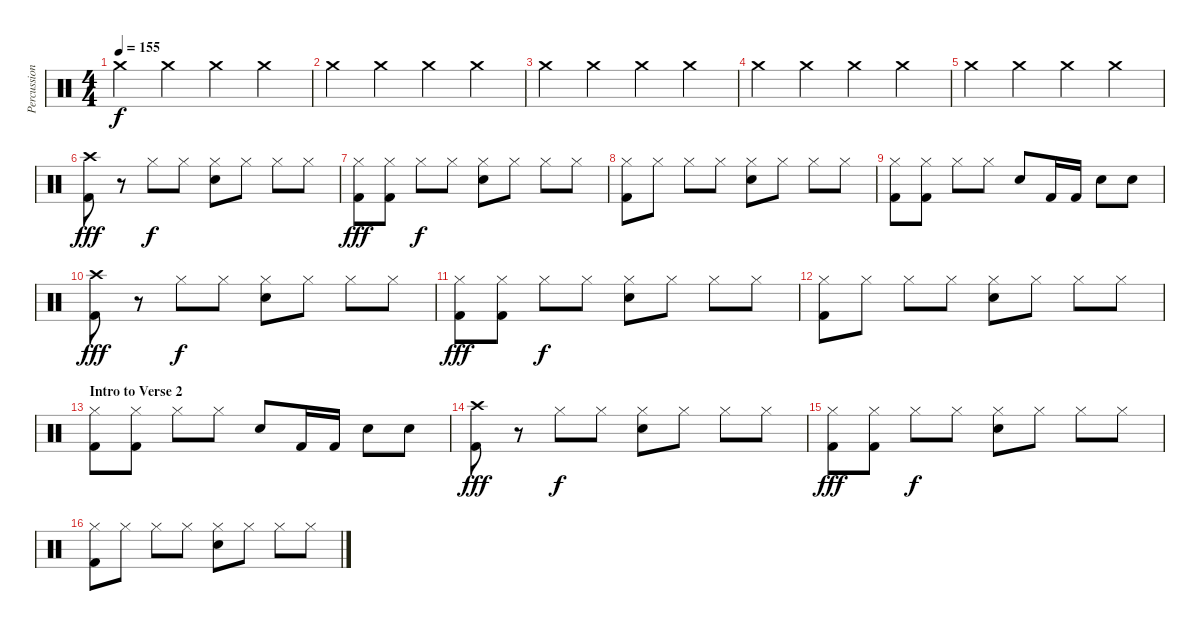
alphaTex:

\track ("Percussion" "Percussion") {instrument percussion}
\staff {score}
\articulation defaults
\ts (4 4)
\tempo 155
\clef neutral
\ks c "Crash medium (hit)".4{dy f} "Crash medium (hit)".4 "Crash medium (hit)".4 "Crash medium (hit)".4
|
"Crash medium (hit)".4 "Crash medium (hit)".4 "Crash medium (hit)".4 "Crash medium (hit)".4 |
"Crash medium (hit)".4 "Crash medium (hit)".4 "Crash medium (hit)".4 "Crash medium (hit)".4 |
"Crash medium (hit)".4 "Crash medium (hit)".4 "Crash medium (hit)".4 "Crash medium (hit)".4 |
"Crash medium (hit)".4 "Crash medium (hit)".4 "Crash medium (hit)".4 "Crash medium (hit)".4 |
("Crash high (hit)" "Kick (hit) 2").8{dy fff} r.8 "Hi-Hat (closed)".8{dy f} "Hi-Hat (closed)".8 ("Hi-Hat (closed)" "Snare (hit) 2").8 "Hi-Hat (closed)".8 "Hi-Hat (closed)".8 "Hi-Hat (closed)".8 |
("Hi-Hat (closed)" "Kick (hit) 2").8{dy fff} ("Hi-Hat (closed)" "Kick (hit) 2").8 "Hi-Hat (closed)".8{dy f} "Hi-Hat (closed)".8 ("Hi-Hat (closed)" "Snare (hit) 2").8 "Hi-Hat (closed)".8 "Hi-Hat (closed)".8 "Hi-Hat (closed)".8 |
("Hi-Hat (closed)" "Kick (hit) 2").8 "Hi-Hat (closed)".8 "Hi-Hat (closed)".8 "Hi-Hat (closed)".8 ("Hi-Hat (closed)" "Snare (hit) 2").8 "Hi-Hat (closed)".8 "Hi-Hat (closed)".8 "Hi-Hat (closed)".8 |
("Hi-Hat (closed)" "Kick (hit) 2").8 ("Hi-Hat (closed)" "Kick (hit) 2").8 "Hi-Hat (closed)".8 "Hi-Hat (closed)".8 "Snare (hit) 2".8 "Kick (hit) 2".16 "Kick (hit) 2".16 "Snare (hit) 2".8 "Snare (hit) 2".8 |
("Crash high (hit)" "Kick (hit) 2").8{dy fff} r.8 "Hi-Hat (closed)".8{dy f} "Hi-Hat (closed)".8 ("Hi-Hat (closed)" "Snare (hit) 2").8 "Hi-Hat (closed)".8 "Hi-Hat (closed)".8 "Hi-Hat (closed)".8 |
("Hi-Hat (closed)" "Kick (hit) 2").8{dy fff} ("Hi-Hat (closed)" "Kick (hit) 2").8 "Hi-Hat (closed)".8{dy f} "Hi-Hat (closed)".8 ("Hi-Hat (closed)" "Snare (hit) 2").8 "Hi-Hat (closed)".8 "Hi-Hat (closed)".8 "Hi-Hat (closed)".8 |
("Hi-Hat (closed)" "Kick (hit) 2").8 "Hi-Hat (closed)".8 "Hi-Hat (closed)".8 "Hi-Hat (closed)".8 ("Hi-Hat (closed)" "Snare (hit) 2").8 "Hi-Hat (closed)".8 "Hi-Hat (closed)".8 "Hi-Hat (closed)".8 |
\section ("" "Intro to Verse 2")
("Hi-Hat (closed)" "Kick (hit) 2").8 ("Hi-Hat (closed)" "Kick (hit) 2").8 "Hi-Hat (closed)".8 "Hi-Hat (closed)".8 "Snare (hit) 2".8 "Kick (hit) 2".16 "Kick (hit) 2".16 "Snare (hit) 2".8 "Snare (hit) 2".8 |
("Crash high (hit)" "Kick (hit) 2").8{dy fff} r.8 "Hi-Hat (closed)".8{dy f} "Hi-Hat (closed)".8 ("Hi-Hat (closed)" "Snare (hit) 2").8 "Hi-Hat (closed)".8 "Hi-Hat (closed)".8 "Hi-Hat (closed)".8 |
("Hi-Hat (closed)" "Kick (hit) 2").8{dy fff} ("Hi-Hat (closed)" "Kick (hit) 2").8 "Hi-Hat (closed)".8{dy f} "Hi-Hat (closed)".8 ("Hi-Hat (closed)" "Snare (hit) 2").8 "Hi-Hat (closed)".8 "Hi-Hat (closed)".8 "Hi-Hat (closed)".8 |
("Hi-Hat (closed)" "Kick (hit) 2").8 "Hi-Hat (closed)".8 "Hi-Hat (closed)".8 "Hi-Hat (closed)".8 ("Hi-Hat (closed)" "Snare (hit) 2").8 "Hi-Hat (closed)".8 "Hi-Hat (closed)".8 "Hi-Hat (closed)".8
